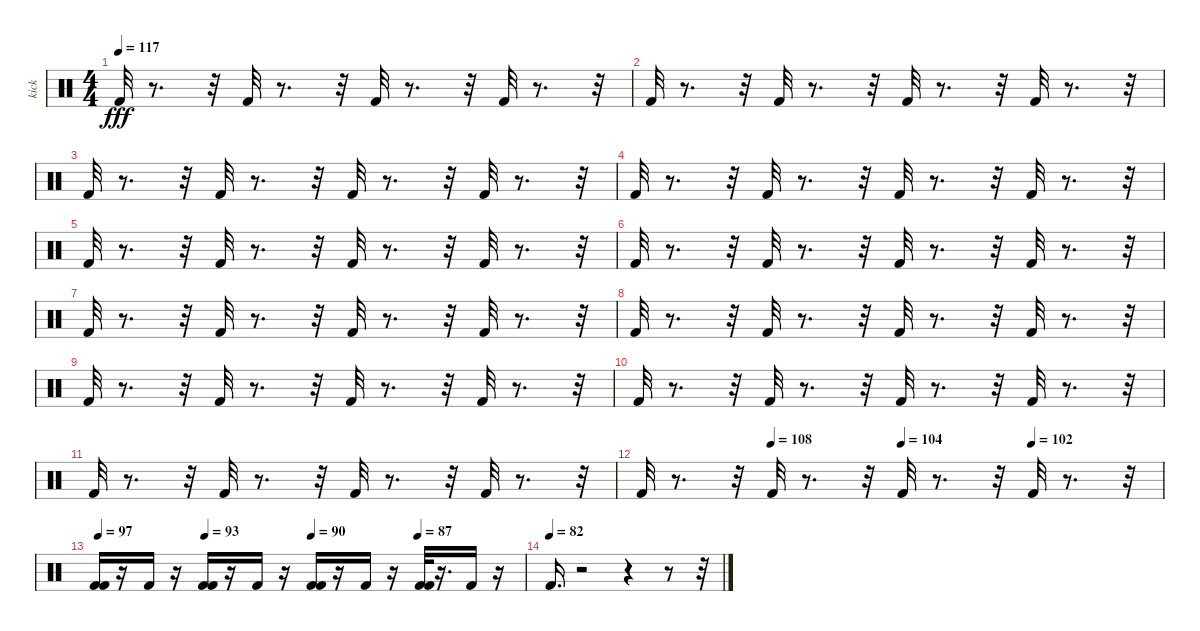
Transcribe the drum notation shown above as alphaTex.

\track ("kick" "kick") {instrument percussion}
\staff {score}
\articulation defaults
\ts (4 4)
\tempo 117
\clef neutral
\ks c "Kick (hit) 2".32{dy fff}
r.8{d} r.32 "Kick (hit) 2".32 r.8{d} r.32 "Kick (hit) 2".32 r.8{d} r.32 "Kick (hit) 2".32 r.8{d} r.32 |
"Kick (hit) 2".32 r.8{d} r.32 "Kick (hit) 2".32 r.8{d} r.32 "Kick (hit) 2".32 r.8{d} r.32 "Kick (hit) 2".32 r.8{d} r.32 |
"Kick (hit) 2".32 r.8{d} r.32 "Kick (hit) 2".32 r.8{d} r.32 "Kick (hit) 2".32 r.8{d} r.32 "Kick (hit) 2".32 r.8{d} r.32 |
"Kick (hit) 2".32 r.8{d} r.32 "Kick (hit) 2".32 r.8{d} r.32 "Kick (hit) 2".32 r.8{d} r.32 "Kick (hit) 2".32 r.8{d} r.32 |
"Kick (hit) 2".32 r.8{d} r.32 "Kick (hit) 2".32 r.8{d} r.32 "Kick (hit) 2".32 r.8{d} r.32 "Kick (hit) 2".32 r.8{d} r.32 |
"Kick (hit) 2".32 r.8{d} r.32 "Kick (hit) 2".32 r.8{d} r.32 "Kick (hit) 2".32 r.8{d} r.32 "Kick (hit) 2".32 r.8{d} r.32 |
"Kick (hit) 2".32 r.8{d} r.32 "Kick (hit) 2".32 r.8{d} r.32 "Kick (hit) 2".32 r.8{d} r.32 "Kick (hit) 2".32 r.8{d} r.32 |
"Kick (hit) 2".32 r.8{d} r.32 "Kick (hit) 2".32 r.8{d} r.32 "Kick (hit) 2".32 r.8{d} r.32 "Kick (hit) 2".32 r.8{d} r.32 |
"Kick (hit) 2".32 r.8{d} r.32 "Kick (hit) 2".32 r.8{d} r.32 "Kick (hit) 2".32 r.8{d} r.32 "Kick (hit) 2".32 r.8{d} r.32 |
"Kick (hit) 2".32 r.8{d} r.32 "Kick (hit) 2".32 r.8{d} r.32 "Kick (hit) 2".32 r.8{d} r.32 "Kick (hit) 2".32 r.8{d} r.32 |
"Kick (hit) 2".32 r.8{d} r.32 "Kick (hit) 2".32 r.8{d} r.32 "Kick (hit) 2".32 r.8{d} r.32 "Kick (hit) 2".32 r.8{d} r.32 |
\tempo (108 0.25)
\tempo (104 0.5)
\tempo (102 0.75)
"Kick (hit) 2".32 r.8{d} r.32 "Kick (hit) 2".32 r.8{d} r.32 "Kick (hit) 2".32 r.8{d} r.32 "Kick (hit) 2".32 r.8{d} r.32 |
\tempo 97
\tempo (93 0.25)
\tempo (90 0.5)
\tempo (87 0.75)
("Kick (hit) 2" "Kick (hit) 2").16 r.16 "Kick (hit) 2".16 r.16 ("Kick (hit) 2" "Kick (hit) 2").16 r.16 "Kick (hit) 2".16 r.16 ("Kick (hit) 2" "Kick (hit) 2").16 r.16 "Kick (hit) 2".16 r.16 ("Kick (hit) 2" "Kick (hit) 2").32 r.16{d} "Kick (hit) 2".16 r.16 |
\tempo (82)
"Kick (hit) 2".16{d} r.2 r.4 r.8 r.32
